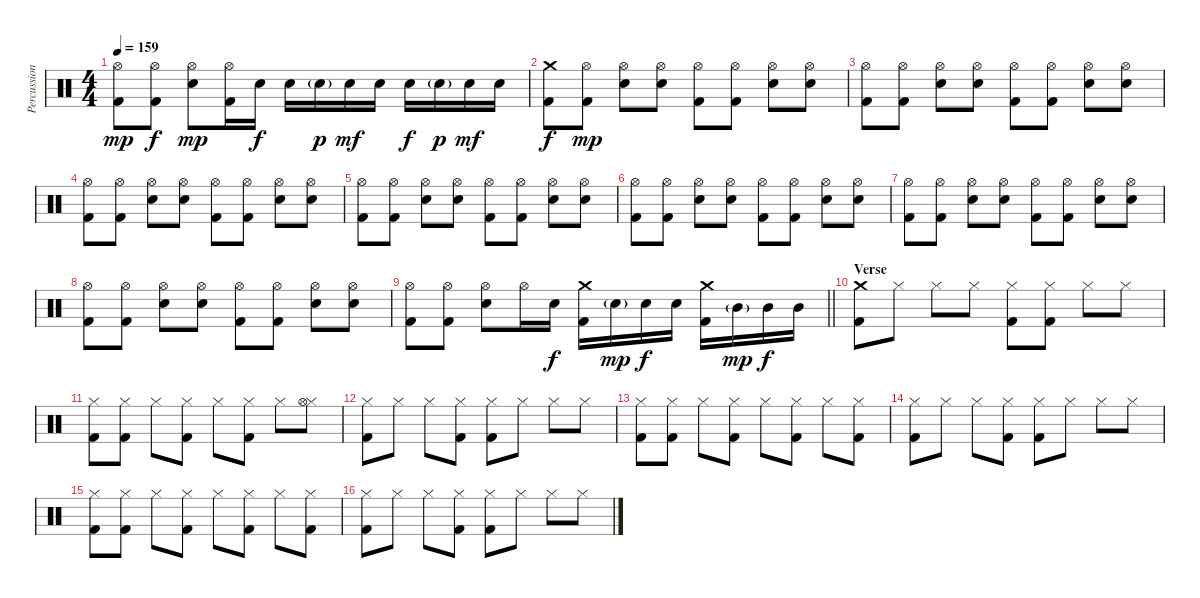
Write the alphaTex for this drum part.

\track ("Percussion" "Percussion") {instrument percussion}
\staff {score}
\articulation defaults
\ts (4 4)
\tempo 159
\clef neutral
\ks c
("Hi-Hat (open)" "Kick (hit) 2").8{dy mp} ("Hi-Hat (open)" "Kick (hit) 2").8{dy f} ("Hi-Hat (open)" "Electric Snare (hit)").8{dy mp} ("Hi-Hat (open)" "Kick (hit) 2").16 "Electric Snare (hit)".16{dy f} "Electric Snare (hit)".16 "Electric Snare (hit)"{g}.16{dy p} "Electric Snare (hit)".16{dy mf} "Electric Snare (hit)".16 "Electric Snare (hit)".16{dy f} "Electric Snare (hit)"{g}.16{dy p} "Electric Snare (hit)".16{dy mf} "Electric Snare (hit)".16 |
("Crash medium (hit)" "Kick (hit) 2").8{dy f} ("Hi-Hat (open)" "Kick (hit) 2").8{dy mp} ("Hi-Hat (open)" "Electric Snare (hit)").8 ("Hi-Hat (open)" "Electric Snare (hit)").8 ("Hi-Hat (open)" "Kick (hit) 2").8 ("Hi-Hat (open)" "Kick (hit) 2").8 ("Hi-Hat (open)" "Electric Snare (hit)").8 ("Hi-Hat (open)" "Electric Snare (hit)").8 |
("Hi-Hat (open)" "Kick (hit) 2").8 ("Hi-Hat (open)" "Kick (hit) 2").8 ("Hi-Hat (open)" "Electric Snare (hit)").8 ("Hi-Hat (open)" "Electric Snare (hit)").8 ("Hi-Hat (open)" "Kick (hit) 2").8 ("Hi-Hat (open)" "Kick (hit) 2").8 ("Hi-Hat (open)" "Electric Snare (hit)").8 ("Hi-Hat (open)" "Electric Snare (hit)").8 |
("Hi-Hat (open)" "Kick (hit) 2").8 ("Hi-Hat (open)" "Kick (hit) 2").8 ("Hi-Hat (open)" "Electric Snare (hit)").8 ("Hi-Hat (open)" "Electric Snare (hit)").8 ("Hi-Hat (open)" "Kick (hit) 2").8 ("Hi-Hat (open)" "Kick (hit) 2").8 ("Hi-Hat (open)" "Electric Snare (hit)").8 ("Hi-Hat (open)" "Electric Snare (hit)").8 |
("Hi-Hat (open)" "Kick (hit) 2").8 ("Hi-Hat (open)" "Kick (hit) 2").8 ("Hi-Hat (open)" "Electric Snare (hit)").8 ("Hi-Hat (open)" "Electric Snare (hit)").8 ("Hi-Hat (open)" "Kick (hit) 2").8 ("Hi-Hat (open)" "Kick (hit) 2").8 ("Hi-Hat (open)" "Electric Snare (hit)").8 ("Hi-Hat (open)" "Electric Snare (hit)").8 |
("Hi-Hat (open)" "Kick (hit) 2").8 ("Hi-Hat (open)" "Kick (hit) 2").8 ("Hi-Hat (open)" "Electric Snare (hit)").8 ("Hi-Hat (open)" "Electric Snare (hit)").8 ("Hi-Hat (open)" "Kick (hit) 2").8 ("Hi-Hat (open)" "Kick (hit) 2").8 ("Hi-Hat (open)" "Electric Snare (hit)").8 ("Hi-Hat (open)" "Electric Snare (hit)").8 |
("Hi-Hat (open)" "Kick (hit) 2").8 ("Hi-Hat (open)" "Kick (hit) 2").8 ("Hi-Hat (open)" "Electric Snare (hit)").8 ("Hi-Hat (open)" "Electric Snare (hit)").8 ("Hi-Hat (open)" "Kick (hit) 2").8 ("Hi-Hat (open)" "Kick (hit) 2").8 ("Hi-Hat (open)" "Electric Snare (hit)").8 ("Hi-Hat (open)" "Electric Snare (hit)").8 |
("Hi-Hat (open)" "Kick (hit) 2").8 ("Hi-Hat (open)" "Kick (hit) 2").8 ("Hi-Hat (open)" "Electric Snare (hit)").8 ("Hi-Hat (open)" "Electric Snare (hit)").8 ("Hi-Hat (open)" "Kick (hit) 2").8 ("Hi-Hat (open)" "Kick (hit) 2").8 ("Hi-Hat (open)" "Electric Snare (hit)").8 ("Hi-Hat (open)" "Electric Snare (hit)").8 |
\barLineRight lightlight
("Hi-Hat (open)" "Kick (hit) 2").8 ("Hi-Hat (open)" "Kick (hit) 2").8 ("Hi-Hat (open)" "Electric Snare (hit)").8 "Hi-Hat (open)".16 "Electric Snare (hit)".16{dy f} ("Crash medium (hit)" "Kick (hit) 2").16 "Electric Snare (hit)"{g}.16{dy mp} "Electric Snare (hit)".16{dy f} "Electric Snare (hit)".16 ("Crash medium (hit)" "Kick (hit) 2").16 "Mid Tom (hit)"{g}.16{dy mp} "Mid Tom (hit)".16{dy f} "Mid Tom (hit)".16 |
\section ("" "Verse")
("Crash medium (hit)" "Kick (hit) 2").8 "Hi-Hat (closed)".8 "Hi-Hat (closed)".8 "Hi-Hat (closed)".8 ("Hi-Hat (closed)" "Kick (hit) 2").8 ("Hi-Hat (closed)" "Kick (hit) 2").8 "Hi-Hat (closed)".8 "Hi-Hat (closed)".8 |
("Hi-Hat (closed)" "Kick (hit) 2").8 ("Hi-Hat (closed)" "Kick (hit) 2").8 "Hi-Hat (closed)".8 ("Hi-Hat (closed)" "Kick (hit) 2").8 "Hi-Hat (closed)".8 ("Hi-Hat (closed)" "Kick (hit) 2").8 "Hi-Hat (closed)".8 ("Hi-Hat (closed)" "Hi-Hat (open)").8 |
("Hi-Hat (closed)" "Kick (hit) 2").8 "Hi-Hat (closed)".8 "Hi-Hat (closed)".8 ("Hi-Hat (closed)" "Kick (hit) 2").8 ("Hi-Hat (closed)" "Kick (hit) 2").8 "Hi-Hat (closed)".8 "Hi-Hat (closed)".8 "Hi-Hat (closed)".8 |
("Hi-Hat (closed)" "Kick (hit) 2").8 ("Hi-Hat (closed)" "Kick (hit) 2").8 "Hi-Hat (closed)".8 ("Hi-Hat (closed)" "Kick (hit) 2").8 "Hi-Hat (closed)".8 ("Hi-Hat (closed)" "Kick (hit) 2").8 "Hi-Hat (closed)".8 ("Hi-Hat (closed)" "Kick (hit) 2").8 |
("Hi-Hat (closed)" "Kick (hit) 2").8 "Hi-Hat (closed)".8 "Hi-Hat (closed)".8 ("Hi-Hat (closed)" "Kick (hit) 2").8 ("Hi-Hat (closed)" "Kick (hit) 2").8 "Hi-Hat (closed)".8 "Hi-Hat (closed)".8 "Hi-Hat (closed)".8 |
("Hi-Hat (closed)" "Kick (hit) 2").8 ("Hi-Hat (closed)" "Kick (hit) 2").8 "Hi-Hat (closed)".8 ("Hi-Hat (closed)" "Kick (hit) 2").8 "Hi-Hat (closed)".8 ("Hi-Hat (closed)" "Kick (hit) 2").8 "Hi-Hat (closed)".8 ("Hi-Hat (closed)" "Kick (hit) 2").8 |
("Hi-Hat (closed)" "Kick (hit) 2").8 "Hi-Hat (closed)".8 "Hi-Hat (closed)".8 ("Hi-Hat (closed)" "Kick (hit) 2").8 ("Hi-Hat (closed)" "Kick (hit) 2").8 "Hi-Hat (closed)".8 "Hi-Hat (closed)".8 "Hi-Hat (closed)".8
